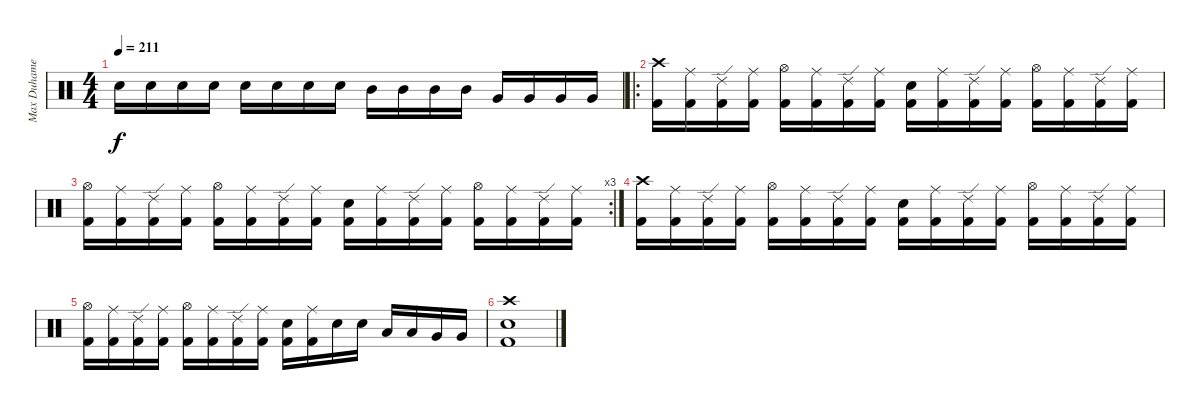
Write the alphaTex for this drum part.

\track ("Max Duhamel" "Max Duhame") {instrument percussion}
\staff {score}
\articulation defaults
\ts (4 4)
\tempo 211
\clef neutral
\ks c "Electric Snare (hit)".16{dy f} "Electric Snare (hit)".16 "Electric Snare (hit)".16 "Electric Snare (hit)".16 "Electric Snare (hit)".16 "Electric Snare (hit)".16 "Electric Snare (hit)".16 "Electric Snare (hit)".16 "Mid Tom (hit)".16 "Mid Tom (hit)".16 "Mid Tom (hit)".16 "Mid Tom (hit)".16 "Very Low Tom (hit)".16 "Very Low Tom (hit)".16 "Very Low Tom (hit)".16 "Very Low Tom (hit)".16
|
\ro
("Crash high (hit)" "Kick (hit) 2").16 ("Ride (middle)" "Kick (hit) 2").16 ("Ride (edge) 2" "Kick (hit) 2").16 ("Ride (middle)" "Kick (hit) 2").16 ("Hi-Hat (open)" "Kick (hit) 2").16 ("Ride (middle)" "Kick (hit) 2").16 ("Ride (edge) 2" "Kick (hit) 2").16 ("Ride (middle)" "Kick (hit) 2").16 ("Electric Snare (hit)" "Kick (hit) 2").16 ("Ride (middle)" "Kick (hit) 2").16 ("Ride (edge) 2" "Kick (hit) 2").16 ("Ride (middle)" "Kick (hit) 2").16 ("Hi-Hat (open)" "Kick (hit) 2").16 ("Ride (middle)" "Kick (hit) 2").16 ("Ride (edge) 2" "Kick (hit) 2").16 ("Ride (middle)" "Kick (hit) 2").16 |
\rc 3
("Hi-Hat (open)" "Kick (hit) 2").16 ("Ride (middle)" "Kick (hit) 2").16 ("Ride (edge) 2" "Kick (hit) 2").16 ("Ride (middle)" "Kick (hit) 2").16 ("Hi-Hat (open)" "Kick (hit) 2").16 ("Ride (middle)" "Kick (hit) 2").16 ("Ride (edge) 2" "Kick (hit) 2").16 ("Ride (middle)" "Kick (hit) 2").16 ("Electric Snare (hit)" "Kick (hit) 2").16 ("Ride (middle)" "Kick (hit) 2").16 ("Ride (edge) 2" "Kick (hit) 2").16 ("Ride (middle)" "Kick (hit) 2").16 ("Hi-Hat (open)" "Kick (hit) 2").16 ("Ride (middle)" "Kick (hit) 2").16 ("Ride (edge) 2" "Kick (hit) 2").16 ("Ride (middle)" "Kick (hit) 2").16 |
("Crash high (hit)" "Kick (hit) 2").16 ("Ride (middle)" "Kick (hit) 2").16 ("Ride (edge) 2" "Kick (hit) 2").16 ("Ride (middle)" "Kick (hit) 2").16 ("Hi-Hat (open)" "Kick (hit) 2").16 ("Ride (middle)" "Kick (hit) 2").16 ("Ride (edge) 2" "Kick (hit) 2").16 ("Ride (middle)" "Kick (hit) 2").16 ("Electric Snare (hit)" "Kick (hit) 2").16 ("Ride (middle)" "Kick (hit) 2").16 ("Ride (edge) 2" "Kick (hit) 2").16 ("Ride (middle)" "Kick (hit) 2").16 ("Hi-Hat (open)" "Kick (hit) 2").16 ("Ride (middle)" "Kick (hit) 2").16 ("Ride (edge) 2" "Kick (hit) 2").16 ("Ride (middle)" "Kick (hit) 2").16 |
("Hi-Hat (open)" "Kick (hit) 2").16 ("Ride (middle)" "Kick (hit) 2").16 ("Ride (edge) 2" "Kick (hit) 2").16 ("Ride (middle)" "Kick (hit) 2").16 ("Hi-Hat (open)" "Kick (hit) 2").16 ("Ride (middle)" "Kick (hit) 2").16 ("Ride (edge) 2" "Kick (hit) 2").16 ("Ride (middle)" "Kick (hit) 2").16 ("Electric Snare (hit)" "Kick (hit) 2").16 ("Ride (middle)" "Kick (hit) 2").16 "Electric Snare (hit)".16 "Electric Snare (hit)".16 "Low Tom (hit)".16 "Low Tom (hit)".16 "Very Low Tom (hit)".16 "Very Low Tom (hit)".16 |
("Crash high (hit)" "Electric Snare (hit)" "Kick (hit) 2").1
